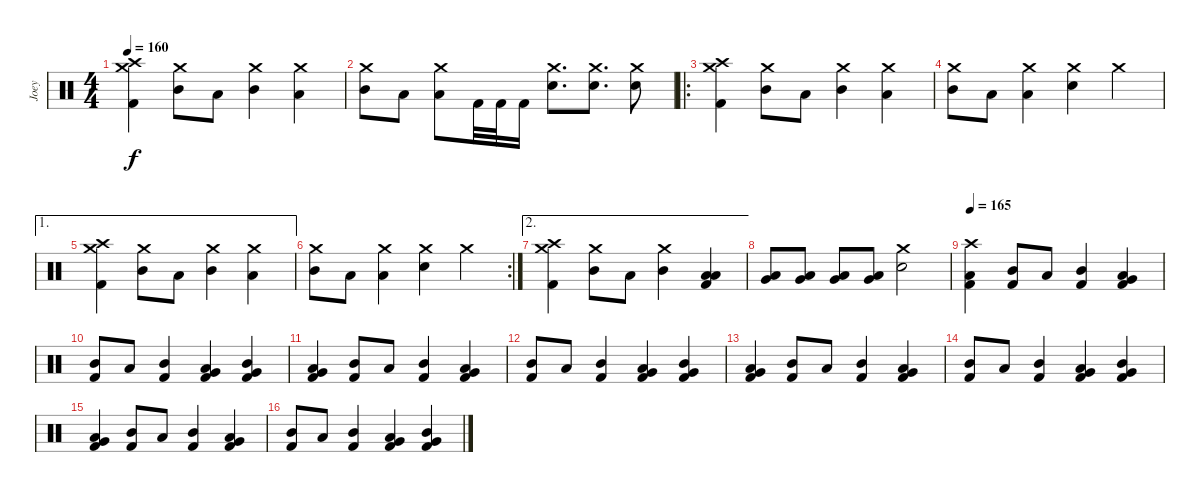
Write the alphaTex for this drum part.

\track ("Joey" "Joey") {instrument percussion}
\staff {score}
\articulation defaults
\ts (4 4)
\tempo 160
\clef neutral
\ks c
("Crash high (hit)" "Crash medium (hit)" "Kick (hit) 2").4{dy f} ("Crash medium (hit)" "Mid Tom (hit)").8 "Low Tom (hit)".8 ("Crash medium (hit)" "Mid Tom (hit)").4 ("Crash medium (hit)" "Low Tom (hit)").4 |
("Crash medium (hit)" "Mid Tom (hit)").8 "Low Tom (hit)".8 ("Crash medium (hit)" "Low Tom (hit)").8 "Kick (hit) 2".32 "Kick (hit) 2".32 "Kick (hit) 2".16 ("Crash medium (hit)" "Electric Snare (hit)").8{d} ("Crash medium (hit)" "Electric Snare (hit)").8{d} ("Crash medium (hit)" "Electric Snare (hit)").8 |
\ro
("Crash high (hit)" "Crash medium (hit)" "Kick (hit) 2").4 ("Crash medium (hit)" "Mid Tom (hit)").8 "Low Tom (hit)".8 ("Crash medium (hit)" "Mid Tom (hit)").4 ("Crash medium (hit)" "Low Tom (hit)").4 |
("Crash medium (hit)" "Mid Tom (hit)").8 "Low Tom (hit)".8 ("Crash medium (hit)" "Low Tom (hit)").4 ("Crash medium (hit)" "Electric Snare (hit)").4 "Crash medium (hit)".4 |
\ae 1
("Crash high (hit)" "Crash medium (hit)" "Kick (hit) 2").4 ("Crash medium (hit)" "Mid Tom (hit)").8 "Low Tom (hit)".8 ("Crash medium (hit)" "Mid Tom (hit)").4 ("Crash medium (hit)" "Low Tom (hit)").4 |
\rc 2
("Crash medium (hit)" "Mid Tom (hit)").8 "Low Tom (hit)".8 ("Crash medium (hit)" "Low Tom (hit)").4 ("Crash medium (hit)" "Electric Snare (hit)").4 "Crash medium (hit)".4 |
\ae 2
("Crash high (hit)" "Crash medium (hit)" "Kick (hit) 2").4 ("Crash medium (hit)" "Mid Tom (hit)").8 "Low Tom (hit)".8 ("Crash medium (hit)" "Mid Tom (hit)").4 ("Low Tom (hit)" "Low Floor Tom (hit)" "Kick (hit) 2").4 |
("Low Tom (hit)" "Very Low Tom (hit)").8 ("Low Tom (hit)" "Very Low Tom (hit)").8 ("Low Tom (hit)" "Very Low Tom (hit)").8 ("Low Tom (hit)" "Very Low Tom (hit)").8 ("Crash medium (hit)" "Electric Snare (hit)").2 |
\tempo 165
("Crash high (hit)" "Low Floor Tom (hit)" "Kick (hit) 2").4 ("Mid Tom (hit)" "Kick (hit) 2").8 "Low Tom (hit)".8 ("Mid Tom (hit)" "Kick (hit) 2").4 ("Low Tom (hit)" "Very Low Tom (hit)" "Kick (hit) 2").4 |
("Mid Tom (hit)" "Kick (hit) 2").8 "Low Tom (hit)".8 ("Mid Tom (hit)" "Kick (hit) 2").4 ("Low Tom (hit)" "Very Low Tom (hit)" "Kick (hit) 2").4 ("Mid Tom (hit)" "Very Low Tom (hit)" "Kick (hit) 2").4 |
("Low Tom (hit)" "Very Low Tom (hit)" "Kick (hit) 2").4 ("Mid Tom (hit)" "Kick (hit) 2").8 "Low Tom (hit)".8 ("Mid Tom (hit)" "Kick (hit) 2").4 ("Low Tom (hit)" "Very Low Tom (hit)" "Kick (hit) 2").4 |
("Mid Tom (hit)" "Kick (hit) 2").8 "Low Tom (hit)".8 ("Mid Tom (hit)" "Kick (hit) 2").4 ("Low Tom (hit)" "Very Low Tom (hit)" "Kick (hit) 2").4 ("Mid Tom (hit)" "Very Low Tom (hit)" "Kick (hit) 2").4 |
("Low Tom (hit)" "Very Low Tom (hit)" "Kick (hit) 2").4 ("Mid Tom (hit)" "Kick (hit) 2").8 "Low Tom (hit)".8 ("Mid Tom (hit)" "Kick (hit) 2").4 ("Low Tom (hit)" "Very Low Tom (hit)" "Kick (hit) 2").4 |
("Mid Tom (hit)" "Kick (hit) 2").8 "Low Tom (hit)".8 ("Mid Tom (hit)" "Kick (hit) 2").4 ("Low Tom (hit)" "Very Low Tom (hit)" "Kick (hit) 2").4 ("Mid Tom (hit)" "Very Low Tom (hit)" "Kick (hit) 2").4 |
("Low Tom (hit)" "Very Low Tom (hit)" "Kick (hit) 2").4 ("Mid Tom (hit)" "Kick (hit) 2").8 "Low Tom (hit)".8 ("Mid Tom (hit)" "Kick (hit) 2").4 ("Low Tom (hit)" "Very Low Tom (hit)" "Kick (hit) 2").4 |
("Mid Tom (hit)" "Kick (hit) 2").8 "Low Tom (hit)".8 ("Mid Tom (hit)" "Kick (hit) 2").4 ("Low Tom (hit)" "Very Low Tom (hit)" "Kick (hit) 2").4 ("Mid Tom (hit)" "Very Low Tom (hit)" "Kick (hit) 2").4
